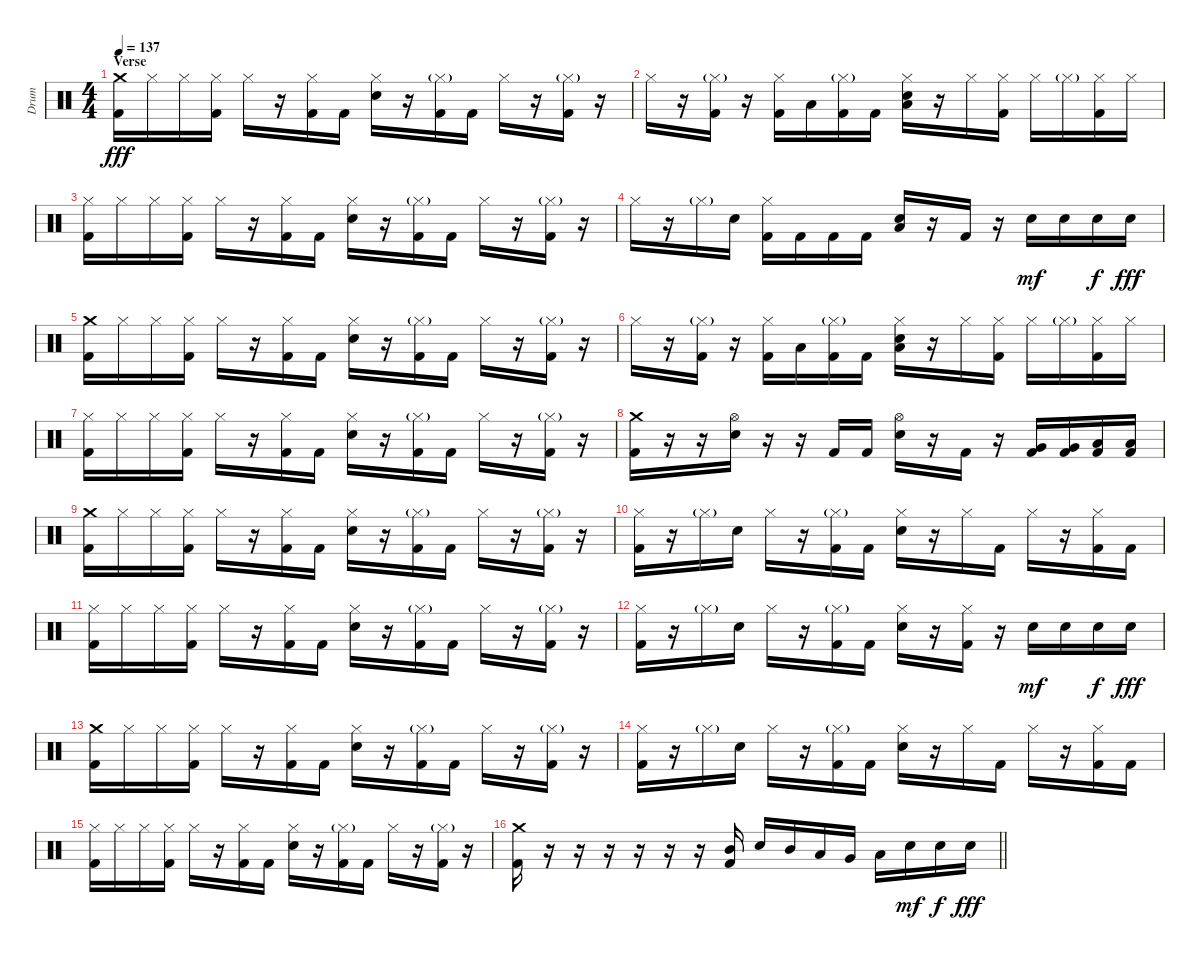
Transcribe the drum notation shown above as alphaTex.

\track ("Drum" "Drum") {instrument percussion}
\staff {score}
\articulation defaults
\ts (4 4)
\section ("" "Verse")
\tempo 137
\clef neutral
\ks c
("Crash medium (hit)" "Kick (hit) 2").16{dy fff} "Hi-Hat (closed)".16 "Hi-Hat (closed)".16 ("Hi-Hat (closed)" "Kick (hit) 2").16 "Hi-Hat (closed)".16 r.16 ("Hi-Hat (closed)" "Kick (hit) 2").16 "Kick (hit) 2".16 ("Hi-Hat (closed)" "Electric Snare (hit)").16 r.16 ("Hi-Hat (closed)"{g} "Kick (hit) 2").16 "Kick (hit) 2".16 "Hi-Hat (closed)".16 r.16 ("Hi-Hat (closed)"{g} "Kick (hit) 2").16 r.16 |
"Hi-Hat (closed)".16 r.16 ("Hi-Hat (closed)"{g} "Kick (hit) 2").16 r.16 ("Hi-Hat (closed)" "Kick (hit) 2").16 "Low Tom (hit)".16 ("Hi-Hat (closed)"{g} "Kick (hit) 2").16 "Kick (hit) 2".16 ("Hi-Hat (closed)" "Low Floor Tom (hit)" "Electric Snare (hit)").16 r.16 "Hi-Hat (closed)".16 ("Hi-Hat (closed)" "Kick (hit) 2").16 "Hi-Hat (closed)".16 "Hi-Hat (closed)"{g}.16 ("Hi-Hat (closed)" "Kick (hit) 2").16 "Hi-Hat (closed)".16 |
("Hi-Hat (closed)" "Kick (hit) 2").16 "Hi-Hat (closed)".16 "Hi-Hat (closed)".16 ("Hi-Hat (closed)" "Kick (hit) 2").16 "Hi-Hat (closed)".16 r.16 ("Hi-Hat (closed)" "Kick (hit) 2").16 "Kick (hit) 2".16 ("Hi-Hat (closed)" "Electric Snare (hit)").16 r.16 ("Hi-Hat (closed)"{g} "Kick (hit) 2").16 "Kick (hit) 2".16 "Hi-Hat (closed)".16 r.16 ("Hi-Hat (closed)"{g} "Kick (hit) 2").16 r.16 |
"Hi-Hat (closed)".16 r.16 "Hi-Hat (closed)"{g}.16 "Electric Snare (hit)".16 ("Hi-Hat (closed)" "Kick (hit) 2").16 "Kick (hit) 2".16 "Kick (hit) 2".16 "Kick (hit) 2".16 ("Low Floor Tom (hit)" "Electric Snare (hit)").16 r.16 "Kick (hit) 2".16 r.16 "Electric Snare (hit)".16{dy mf} "Electric Snare (hit)".16 "Electric Snare (hit)".16{dy f} "Electric Snare (hit)".16{dy fff} |
("Crash medium (hit)" "Kick (hit) 2").16 "Hi-Hat (closed)".16 "Hi-Hat (closed)".16 ("Hi-Hat (closed)" "Kick (hit) 2").16 "Hi-Hat (closed)".16 r.16 ("Hi-Hat (closed)" "Kick (hit) 2").16 "Kick (hit) 2".16 ("Hi-Hat (closed)" "Electric Snare (hit)").16 r.16 ("Hi-Hat (closed)"{g} "Kick (hit) 2").16 "Kick (hit) 2".16 "Hi-Hat (closed)".16 r.16 ("Hi-Hat (closed)"{g} "Kick (hit) 2").16 r.16 |
"Hi-Hat (closed)".16 r.16 ("Hi-Hat (closed)"{g} "Kick (hit) 2").16 r.16 ("Hi-Hat (closed)" "Kick (hit) 2").16 "Low Tom (hit)".16 ("Hi-Hat (closed)"{g} "Kick (hit) 2").16 "Kick (hit) 2".16 ("Hi-Hat (closed)" "Low Floor Tom (hit)" "Electric Snare (hit)").16 r.16 "Hi-Hat (closed)".16 ("Hi-Hat (closed)" "Kick (hit) 2").16 "Hi-Hat (closed)".16 "Hi-Hat (closed)"{g}.16 ("Hi-Hat (closed)" "Kick (hit) 2").16 "Hi-Hat (closed)".16 |
("Hi-Hat (closed)" "Kick (hit) 2").16 "Hi-Hat (closed)".16 "Hi-Hat (closed)".16 ("Hi-Hat (closed)" "Kick (hit) 2").16 "Hi-Hat (closed)".16 r.16 ("Hi-Hat (closed)" "Kick (hit) 2").16 "Kick (hit) 2".16 ("Hi-Hat (closed)" "Electric Snare (hit)").16 r.16 ("Hi-Hat (closed)"{g} "Kick (hit) 2").16 "Kick (hit) 2".16 "Hi-Hat (closed)".16 r.16 ("Hi-Hat (closed)"{g} "Kick (hit) 2").16 r.16 |
("Crash medium (hit)" "Kick (hit) 2").16 r.16 r.16 ("Hi-Hat (open)" "Electric Snare (hit)").16 r.16 r.16 "Kick (hit) 2".16 "Kick (hit) 2".16 ("Hi-Hat (open)" "Electric Snare (hit)").16 r.16 "Kick (hit) 2".16 r.16 ("Very Low Tom (hit)" "Kick (hit) 2").16 ("Very Low Tom (hit)" "Kick (hit) 2").16 ("Low Floor Tom (hit)" "Kick (hit) 2").16 ("Low Floor Tom (hit)" "Kick (hit) 2").16 |
("Crash medium (hit)" "Kick (hit) 2").16 "Hi-Hat (closed)".16 "Hi-Hat (closed)".16 ("Hi-Hat (closed)" "Kick (hit) 2").16 "Hi-Hat (closed)".16 r.16 ("Hi-Hat (closed)" "Kick (hit) 2").16 "Kick (hit) 2".16 ("Hi-Hat (closed)" "Electric Snare (hit)").16 r.16 ("Hi-Hat (closed)"{g} "Kick (hit) 2").16 "Kick (hit) 2".16 "Hi-Hat (closed)".16 r.16 ("Hi-Hat (closed)"{g} "Kick (hit) 2").16 r.16 |
("Hi-Hat (closed)" "Kick (hit) 2").16 r.16 "Hi-Hat (closed)"{g}.16 "Electric Snare (hit)".16 "Hi-Hat (closed)".16 r.16 ("Hi-Hat (closed)"{g} "Kick (hit) 2").16 "Kick (hit) 2".16 ("Hi-Hat (closed)" "Electric Snare (hit)").16 r.16 "Hi-Hat (closed)".16 "Kick (hit) 2".16 "Hi-Hat (closed)".16 r.16 ("Hi-Hat (closed)" "Kick (hit) 2").16 "Kick (hit) 2".16 |
("Hi-Hat (closed)" "Kick (hit) 2").16 "Hi-Hat (closed)".16 "Hi-Hat (closed)".16 ("Hi-Hat (closed)" "Kick (hit) 2").16 "Hi-Hat (closed)".16 r.16 ("Hi-Hat (closed)" "Kick (hit) 2").16 "Kick (hit) 2".16 ("Hi-Hat (closed)" "Electric Snare (hit)").16 r.16 ("Hi-Hat (closed)"{g} "Kick (hit) 2").16 "Kick (hit) 2".16 "Hi-Hat (closed)".16 r.16 ("Hi-Hat (closed)"{g} "Kick (hit) 2").16 r.16 |
("Hi-Hat (closed)" "Kick (hit) 2").16 r.16 "Hi-Hat (closed)"{g}.16 "Electric Snare (hit)".16 "Hi-Hat (closed)".16 r.16 ("Hi-Hat (closed)"{g} "Kick (hit) 2").16 "Kick (hit) 2".16 ("Hi-Hat (closed)" "Electric Snare (hit)").16 r.16 ("Hi-Hat (closed)" "Kick (hit) 2").16 r.16 "Electric Snare (hit)".16{dy mf} "Electric Snare (hit)".16 "Electric Snare (hit)".16{dy f} "Electric Snare (hit)".16{dy fff} |
("Crash medium (hit)" "Kick (hit) 2").16 "Hi-Hat (closed)".16 "Hi-Hat (closed)".16 ("Hi-Hat (closed)" "Kick (hit) 2").16 "Hi-Hat (closed)".16 r.16 ("Hi-Hat (closed)" "Kick (hit) 2").16 "Kick (hit) 2".16 ("Hi-Hat (closed)" "Electric Snare (hit)").16 r.16 ("Hi-Hat (closed)"{g} "Kick (hit) 2").16 "Kick (hit) 2".16 "Hi-Hat (closed)".16 r.16 ("Hi-Hat (closed)"{g} "Kick (hit) 2").16 r.16 |
("Hi-Hat (closed)" "Kick (hit) 2").16 r.16 "Hi-Hat (closed)"{g}.16 "Electric Snare (hit)".16 "Hi-Hat (closed)".16 r.16 ("Hi-Hat (closed)"{g} "Kick (hit) 2").16 "Kick (hit) 2".16 ("Hi-Hat (closed)" "Electric Snare (hit)").16 r.16 "Hi-Hat (closed)".16 "Kick (hit) 2".16 "Hi-Hat (closed)".16 r.16 ("Hi-Hat (closed)" "Kick (hit) 2").16 "Kick (hit) 2".16 |
("Hi-Hat (closed)" "Kick (hit) 2").16 "Hi-Hat (closed)".16 "Hi-Hat (closed)".16 ("Hi-Hat (closed)" "Kick (hit) 2").16 "Hi-Hat (closed)".16 r.16 ("Hi-Hat (closed)" "Kick (hit) 2").16 "Kick (hit) 2".16 ("Hi-Hat (closed)" "Electric Snare (hit)").16 r.16 ("Hi-Hat (closed)"{g} "Kick (hit) 2").16 "Kick (hit) 2".16 "Hi-Hat (closed)".16 r.16 ("Hi-Hat (closed)"{g} "Kick (hit) 2").16 r.16 |
\barLineRight lightlight
("Crash medium (hit)" "Kick (hit) 2").16 r.16 r.16 r.16 r.16 r.16 r.16 ("Mid Tom (hit)" "Kick (hit) 2").16 "Electric Snare (hit)".16 "Mid Tom (hit)".16 "Low Tom (hit)".16 "Very Low Tom (hit)".16 "Low Floor Tom (hit)".16 "Electric Snare (hit)".16{dy mf} "Electric Snare (hit)".16{dy f} "Electric Snare (hit)".16{dy fff}
